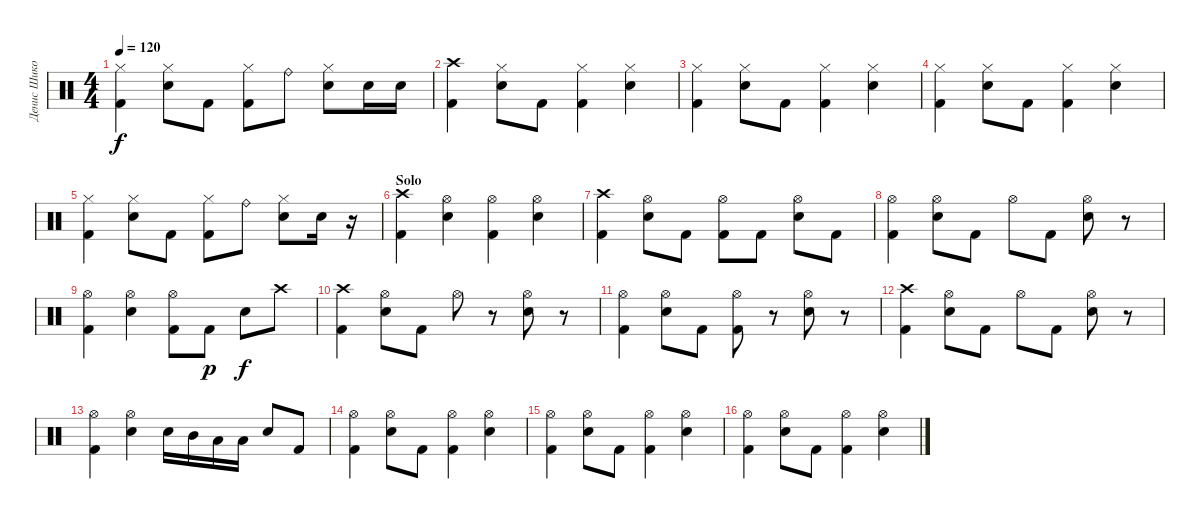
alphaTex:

\track ("Денис Шиков" "Денис Шико") {instrument percussion}
\staff {score}
\articulation defaults
\ts (4 4)
\tempo 120
\clef neutral
\ks c
("Hi-Hat (closed)" "Kick (hit) 2").4{dy f} ("Hi-Hat (closed)" "Electric Snare (hit)").8 "Kick (hit) 2".8 ("Hi-Hat (closed)" "Kick (hit) 2").8 "Ride (bell)".8 ("Hi-Hat (closed)" "Electric Snare (hit)").8 "Electric Snare (hit)".16 "Electric Snare (hit)".16 |
("Crash high (hit)" "Kick (hit) 2").4 ("Hi-Hat (closed)" "Electric Snare (hit)").8 "Kick (hit) 2".8 ("Hi-Hat (closed)" "Kick (hit) 2").4 ("Hi-Hat (closed)" "Electric Snare (hit)").4 |
("Hi-Hat (closed)" "Kick (hit) 2").4 ("Hi-Hat (closed)" "Electric Snare (hit)").8 "Kick (hit) 2".8 ("Hi-Hat (closed)" "Kick (hit) 2").4 ("Hi-Hat (closed)" "Electric Snare (hit)").4 |
("Hi-Hat (closed)" "Kick (hit) 2").4 ("Hi-Hat (closed)" "Electric Snare (hit)").8 "Kick (hit) 2".8 ("Hi-Hat (closed)" "Kick (hit) 2").4 ("Hi-Hat (closed)" "Electric Snare (hit)").4 |
("Hi-Hat (closed)" "Kick (hit) 2").4 ("Hi-Hat (closed)" "Electric Snare (hit)").8 "Kick (hit) 2".8 ("Hi-Hat (closed)" "Kick (hit) 2").8 "Ride (bell)".8 ("Hi-Hat (closed)" "Electric Snare (hit)").8 "Electric Snare (hit)".16 r.16 |
\section ("" "Solo")
("Crash high (hit)" "Kick (hit) 2").4 ("Hi-Hat (open)" "Electric Snare (hit)").4 ("Hi-Hat (open)" "Kick (hit) 2").4 ("Hi-Hat (open)" "Electric Snare (hit)").4 |
("Crash high (hit)" "Kick (hit) 2").4 ("Hi-Hat (open)" "Electric Snare (hit)").8 "Kick (hit) 2".8 ("Hi-Hat (open)" "Kick (hit) 2").8 "Kick (hit) 2".8 ("Hi-Hat (open)" "Electric Snare (hit)").8 "Kick (hit) 2".8 |
("Hi-Hat (open)" "Kick (hit) 2").4 ("Hi-Hat (open)" "Electric Snare (hit)").8 "Kick (hit) 2".8 "Hi-Hat (open)".8 "Kick (hit) 2".8 ("Hi-Hat (open)" "Electric Snare (hit)").8 r.8 |
("Hi-Hat (open)" "Kick (hit) 2").4 ("Hi-Hat (open)" "Electric Snare (hit)").4 ("Hi-Hat (open)" "Kick (hit) 2").8 "Kick (hit) 2".8{dy p} "Electric Snare (hit)".8{dy f} "Crash high (hit)".8 |
("Crash high (hit)" "Kick (hit) 2").4 ("Hi-Hat (open)" "Electric Snare (hit)").8 "Kick (hit) 2".8 "Hi-Hat (open)".8 r.8 ("Hi-Hat (open)" "Electric Snare (hit)").8 r.8 |
("Hi-Hat (open)" "Kick (hit) 2").4 ("Hi-Hat (open)" "Electric Snare (hit)").8 "Kick (hit) 2".8 ("Hi-Hat (open)" "Kick (hit) 2").8 r.8 ("Hi-Hat (open)" "Electric Snare (hit)").8 r.8 |
("Crash high (hit)" "Kick (hit) 2").4 ("Hi-Hat (open)" "Electric Snare (hit)").8 "Kick (hit) 2".8 "Hi-Hat (open)".8 "Kick (hit) 2".8 ("Hi-Hat (open)" "Electric Snare (hit)").8 r.8 |
("Hi-Hat (open)" "Kick (hit) 2").4 ("Hi-Hat (open)" "Electric Snare (hit)").4 "Electric Snare (hit)".16 "Mid Tom (hit)".16 "Low Tom (hit)".16 "Low Floor Tom (hit)".16 "Electric Snare (hit)".8 "Kick (hit) 2".8 |
("Hi-Hat (open)" "Kick (hit) 2").4 ("Hi-Hat (open)" "Electric Snare (hit)").8 "Kick (hit) 2".8 ("Hi-Hat (open)" "Kick (hit) 2").4 ("Hi-Hat (open)" "Electric Snare (hit)").4 |
("Hi-Hat (open)" "Kick (hit) 2").4 ("Hi-Hat (open)" "Electric Snare (hit)").8 "Kick (hit) 2".8 ("Hi-Hat (open)" "Kick (hit) 2").4 ("Hi-Hat (open)" "Electric Snare (hit)").4 |
("Hi-Hat (open)" "Kick (hit) 2").4 ("Hi-Hat (open)" "Electric Snare (hit)").8 "Kick (hit) 2".8 ("Hi-Hat (open)" "Kick (hit) 2").4 ("Hi-Hat (open)" "Electric Snare (hit)").4
